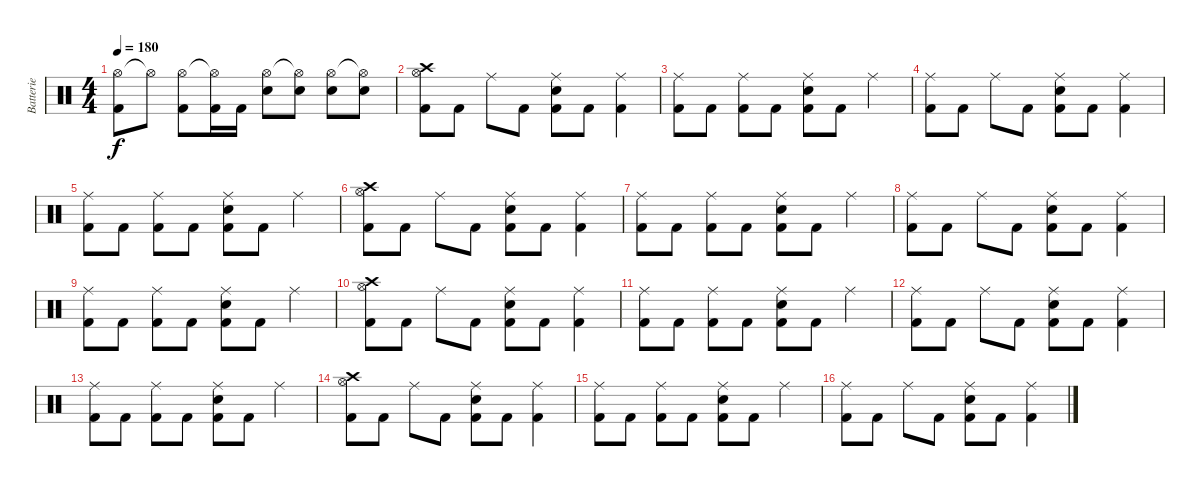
\track ("Batterie" "Batterie") {instrument percussion}
\staff {score}
\articulation defaults
\ts (4 4)
\tempo 180
\clef neutral
\ks c
("Hi-Hat (open)" "Kick (hit) 2").8{dy f} "Hi-Hat (open)"{t}.8 ("Hi-Hat (open)" "Kick (hit) 2").8 ("Hi-Hat (open)"{t} "Kick (hit) 2").16 "Kick (hit) 2".16 ("Hi-Hat (open)" "Electric Snare (hit)").8 ("Hi-Hat (open)"{t} "Electric Snare (hit)").8 ("Hi-Hat (open)" "Electric Snare (hit)").8 ("Hi-Hat (open)"{t} "Electric Snare (hit)").8 |
("Crash high (hit)" "Hi-Hat (open)" "Kick (hit) 2").8 "Kick (hit) 2".8 "Ride (middle)".8 "Kick (hit) 2".8 ("Ride (middle)" "Electric Snare (hit)" "Kick (hit) 2").8 "Kick (hit) 2".8 ("Ride (middle)" "Kick (hit) 2").4 |
("Ride (middle)" "Kick (hit) 2").8 "Kick (hit) 2".8 ("Ride (middle)" "Kick (hit) 2").8 "Kick (hit) 2".8 ("Ride (middle)" "Electric Snare (hit)" "Kick (hit) 2").8 "Kick (hit) 2".8 "Ride (middle)".4 |
("Ride (middle)" "Kick (hit) 2").8 "Kick (hit) 2".8 "Ride (middle)".8 "Kick (hit) 2".8 ("Ride (middle)" "Electric Snare (hit)" "Kick (hit) 2").8 "Kick (hit) 2".8 ("Ride (middle)" "Kick (hit) 2").4 |
("Ride (middle)" "Kick (hit) 2").8 "Kick (hit) 2".8 ("Ride (middle)" "Kick (hit) 2").8 "Kick (hit) 2".8 ("Ride (middle)" "Electric Snare (hit)" "Kick (hit) 2").8 "Kick (hit) 2".8 "Ride (middle)".4 |
("Crash high (hit)" "Hi-Hat (open)" "Kick (hit) 2").8 "Kick (hit) 2".8 "Ride (middle)".8 "Kick (hit) 2".8 ("Ride (middle)" "Electric Snare (hit)" "Kick (hit) 2").8 "Kick (hit) 2".8 ("Ride (middle)" "Kick (hit) 2").4 |
("Ride (middle)" "Kick (hit) 2").8 "Kick (hit) 2".8 ("Ride (middle)" "Kick (hit) 2").8 "Kick (hit) 2".8 ("Ride (middle)" "Electric Snare (hit)" "Kick (hit) 2").8 "Kick (hit) 2".8 "Ride (middle)".4 |
("Ride (middle)" "Kick (hit) 2").8 "Kick (hit) 2".8 "Ride (middle)".8 "Kick (hit) 2".8 ("Ride (middle)" "Electric Snare (hit)" "Kick (hit) 2").8 "Kick (hit) 2".8 ("Ride (middle)" "Kick (hit) 2").4 |
("Ride (middle)" "Kick (hit) 2").8 "Kick (hit) 2".8 ("Ride (middle)" "Kick (hit) 2").8 "Kick (hit) 2".8 ("Ride (middle)" "Electric Snare (hit)" "Kick (hit) 2").8 "Kick (hit) 2".8 "Ride (middle)".4 |
("Crash high (hit)" "Hi-Hat (open)" "Kick (hit) 2").8 "Kick (hit) 2".8 "Ride (middle)".8 "Kick (hit) 2".8 ("Ride (middle)" "Electric Snare (hit)" "Kick (hit) 2").8 "Kick (hit) 2".8 ("Ride (middle)" "Kick (hit) 2").4 |
("Ride (middle)" "Kick (hit) 2").8 "Kick (hit) 2".8 ("Ride (middle)" "Kick (hit) 2").8 "Kick (hit) 2".8 ("Ride (middle)" "Electric Snare (hit)" "Kick (hit) 2").8 "Kick (hit) 2".8 "Ride (middle)".4 |
("Ride (middle)" "Kick (hit) 2").8 "Kick (hit) 2".8 "Ride (middle)".8 "Kick (hit) 2".8 ("Ride (middle)" "Electric Snare (hit)" "Kick (hit) 2").8 "Kick (hit) 2".8 ("Ride (middle)" "Kick (hit) 2").4 |
("Ride (middle)" "Kick (hit) 2").8 "Kick (hit) 2".8 ("Ride (middle)" "Kick (hit) 2").8 "Kick (hit) 2".8 ("Ride (middle)" "Electric Snare (hit)" "Kick (hit) 2").8 "Kick (hit) 2".8 "Ride (middle)".4 |
("Crash high (hit)" "Hi-Hat (open)" "Kick (hit) 2").8 "Kick (hit) 2".8 "Ride (middle)".8 "Kick (hit) 2".8 ("Ride (middle)" "Electric Snare (hit)" "Kick (hit) 2").8 "Kick (hit) 2".8 ("Ride (middle)" "Kick (hit) 2").4 |
("Ride (middle)" "Kick (hit) 2").8 "Kick (hit) 2".8 ("Ride (middle)" "Kick (hit) 2").8 "Kick (hit) 2".8 ("Ride (middle)" "Electric Snare (hit)" "Kick (hit) 2").8 "Kick (hit) 2".8 "Ride (middle)".4 |
("Ride (middle)" "Kick (hit) 2").8 "Kick (hit) 2".8 "Ride (middle)".8 "Kick (hit) 2".8 ("Ride (middle)" "Electric Snare (hit)" "Kick (hit) 2").8 "Kick (hit) 2".8 ("Ride (middle)" "Kick (hit) 2").4
